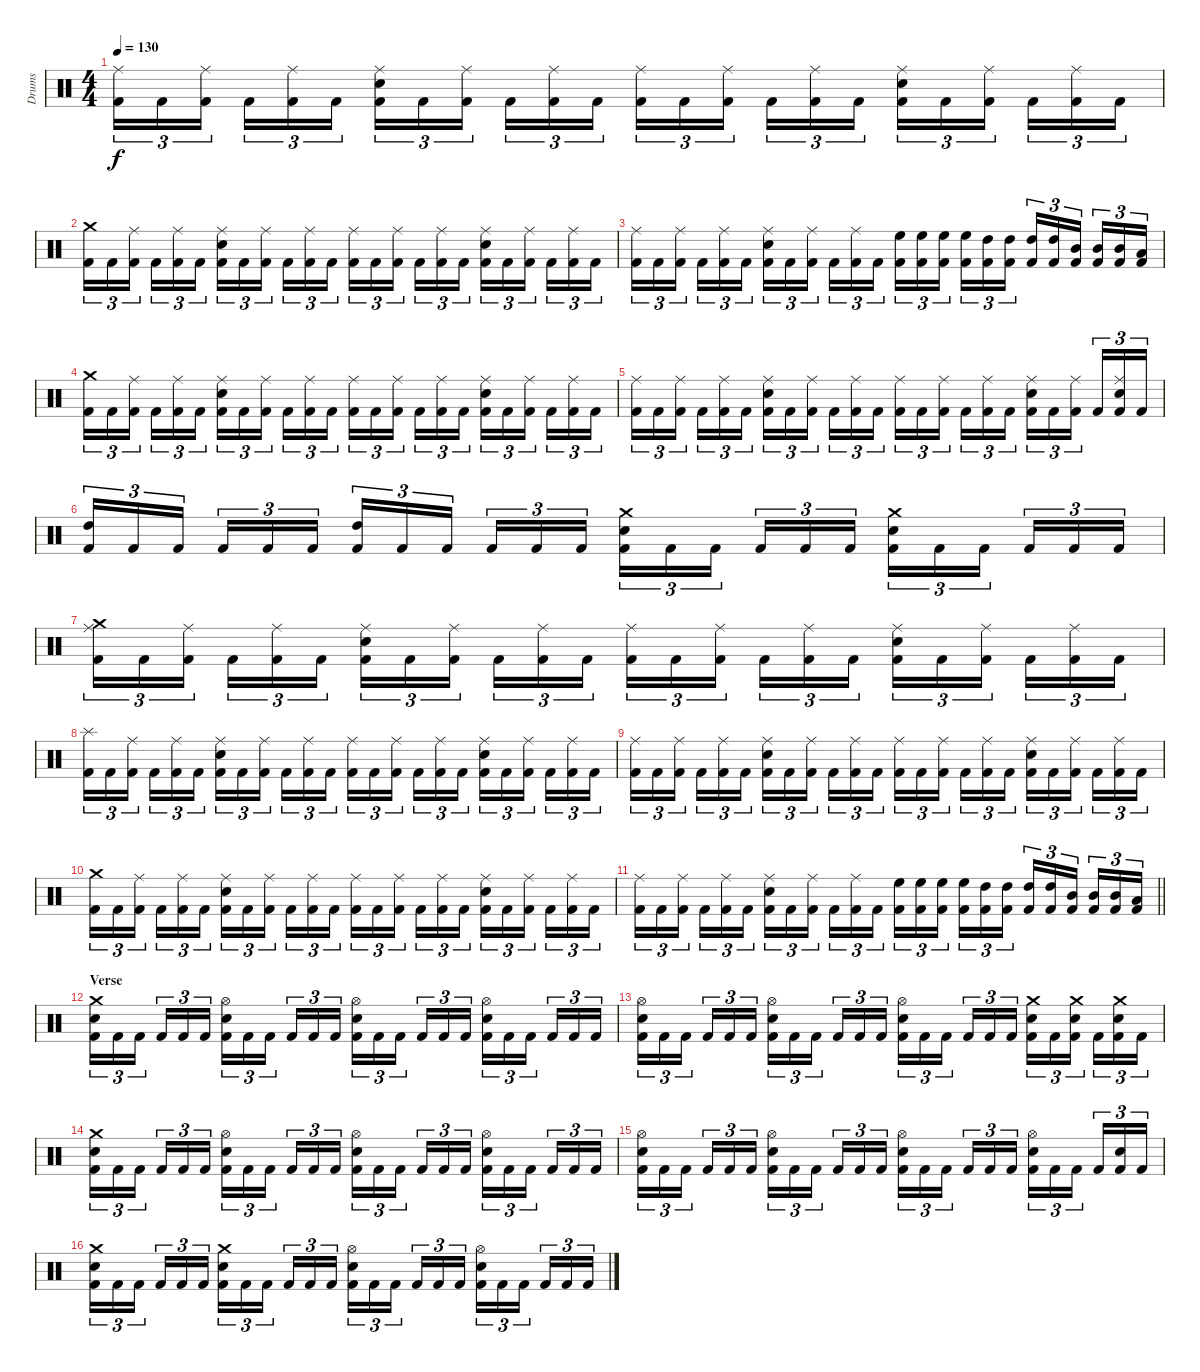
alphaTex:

\track ("Drums" "Drums") {instrument percussion}
\staff {score}
\articulation defaults
\ts (4 4)
\tempo 130
\clef neutral
\ks c
("Kick (hit) 2" "Ride (middle)").16{tu (3 2) dy f} "Kick (hit) 2".16{tu (3 2)} ("Kick (hit) 2" "Ride (middle)").16{tu (3 2) beam splitsecondary} "Kick (hit) 2".16{tu (3 2)} ("Kick (hit) 2" "Ride (middle)").16{tu (3 2)} "Kick (hit) 2".16{tu (3 2)} ("Kick (hit) 2" "Electric Snare (hit)" "Ride (middle)").16{tu (3 2)} "Kick (hit) 2".16{tu (3 2)} ("Kick (hit) 2" "Ride (middle)").16{tu (3 2) beam splitsecondary} "Kick (hit) 2".16{tu (3 2)} ("Kick (hit) 2" "Ride (middle)").16{tu (3 2)} "Kick (hit) 2".16{tu (3 2)} ("Kick (hit) 2" "Ride (middle)").16{tu (3 2)} "Kick (hit) 2".16{tu (3 2)} ("Kick (hit) 2" "Ride (middle)").16{tu (3 2) beam splitsecondary} "Kick (hit) 2".16{tu (3 2)} ("Kick (hit) 2" "Ride (middle)").16{tu (3 2)} "Kick (hit) 2".16{tu (3 2)} ("Kick (hit) 2" "Electric Snare (hit)" "Ride (middle)").16{tu (3 2)} "Kick (hit) 2".16{tu (3 2)} ("Kick (hit) 2" "Ride (middle)").16{tu (3 2) beam splitsecondary} "Kick (hit) 2".16{tu (3 2)} ("Kick (hit) 2" "Ride (middle)").16{tu (3 2)} "Kick (hit) 2".16{tu (3 2)} |
("Kick (hit) 2" "Crash medium (hit)").16{tu (3 2)} "Kick (hit) 2".16{tu (3 2)} ("Kick (hit) 2" "Ride (middle)").16{tu (3 2) beam splitsecondary} "Kick (hit) 2".16{tu (3 2)} ("Kick (hit) 2" "Ride (middle)").16{tu (3 2)} "Kick (hit) 2".16{tu (3 2)} ("Kick (hit) 2" "Electric Snare (hit)" "Ride (middle)").16{tu (3 2)} "Kick (hit) 2".16{tu (3 2)} ("Kick (hit) 2" "Ride (middle)").16{tu (3 2) beam splitsecondary} "Kick (hit) 2".16{tu (3 2)} ("Kick (hit) 2" "Ride (middle)").16{tu (3 2)} "Kick (hit) 2".16{tu (3 2)} ("Kick (hit) 2" "Ride (middle)").16{tu (3 2)} "Kick (hit) 2".16{tu (3 2)} ("Kick (hit) 2" "Ride (middle)").16{tu (3 2) beam splitsecondary} "Kick (hit) 2".16{tu (3 2)} ("Kick (hit) 2" "Ride (middle)").16{tu (3 2)} "Kick (hit) 2".16{tu (3 2)} ("Kick (hit) 2" "Electric Snare (hit)" "Ride (middle)").16{tu (3 2)} "Kick (hit) 2".16{tu (3 2)} ("Kick (hit) 2" "Ride (middle)").16{tu (3 2) beam splitsecondary} "Kick (hit) 2".16{tu (3 2)} ("Kick (hit) 2" "Ride (middle)").16{tu (3 2)} "Kick (hit) 2".16{tu (3 2)} |
("Kick (hit) 2" "Ride (middle)").16{tu (3 2)} "Kick (hit) 2".16{tu (3 2)} ("Kick (hit) 2" "Ride (middle)").16{tu (3 2) beam splitsecondary} "Kick (hit) 2".16{tu (3 2)} ("Kick (hit) 2" "Ride (middle)").16{tu (3 2)} "Kick (hit) 2".16{tu (3 2)} ("Kick (hit) 2" "Electric Snare (hit)" "Ride (middle)").16{tu (3 2)} "Kick (hit) 2".16{tu (3 2)} ("Kick (hit) 2" "Ride (middle)").16{tu (3 2) beam splitsecondary} "Kick (hit) 2".16{tu (3 2)} ("Kick (hit) 2" "Ride (middle)").16{tu (3 2)} "Kick (hit) 2".16{tu (3 2)} ("Kick (hit) 2" "High Floor Tom (hit)").16{tu (3 2)} ("Kick (hit) 2" "High Floor Tom (hit)").16{tu (3 2)} ("Kick (hit) 2" "High Floor Tom (hit)").16{tu (3 2) beam splitsecondary} ("Kick (hit) 2" "High Floor Tom (hit)").16{tu (3 2)} ("Kick (hit) 2" "High Tom (hit)").16{tu (3 2)} ("Kick (hit) 2" "High Tom (hit)").16{tu (3 2)} ("Kick (hit) 2" "High Tom (hit)").16{tu (3 2)} ("Kick (hit) 2" "High Tom (hit)").16{tu (3 2)} ("Kick (hit) 2" "Mid Tom (hit)").16{tu (3 2) beam splitsecondary} ("Kick (hit) 2" "Mid Tom (hit)").16{tu (3 2)} ("Kick (hit) 2" "Mid Tom (hit)").16{tu (3 2)} ("Kick (hit) 2" "Low Tom (hit)").16{tu (3 2)} |
("Kick (hit) 2" "Crash medium (hit)").16{tu (3 2)} "Kick (hit) 2".16{tu (3 2)} ("Kick (hit) 2" "Ride (middle)").16{tu (3 2) beam splitsecondary} "Kick (hit) 2".16{tu (3 2)} ("Kick (hit) 2" "Ride (middle)").16{tu (3 2)} "Kick (hit) 2".16{tu (3 2)} ("Kick (hit) 2" "Electric Snare (hit)" "Ride (middle)").16{tu (3 2)} "Kick (hit) 2".16{tu (3 2)} ("Kick (hit) 2" "Ride (middle)").16{tu (3 2) beam splitsecondary} "Kick (hit) 2".16{tu (3 2)} ("Kick (hit) 2" "Ride (middle)").16{tu (3 2)} "Kick (hit) 2".16{tu (3 2)} ("Kick (hit) 2" "Ride (middle)").16{tu (3 2)} "Kick (hit) 2".16{tu (3 2)} ("Kick (hit) 2" "Ride (middle)").16{tu (3 2) beam splitsecondary} "Kick (hit) 2".16{tu (3 2)} ("Kick (hit) 2" "Ride (middle)").16{tu (3 2)} "Kick (hit) 2".16{tu (3 2)} ("Kick (hit) 2" "Electric Snare (hit)" "Ride (middle)").16{tu (3 2)} "Kick (hit) 2".16{tu (3 2)} ("Kick (hit) 2" "Ride (middle)").16{tu (3 2) beam splitsecondary} "Kick (hit) 2".16{tu (3 2)} ("Kick (hit) 2" "Ride (middle)").16{tu (3 2)} "Kick (hit) 2".16{tu (3 2)} |
("Kick (hit) 2" "Ride (middle)").16{tu (3 2)} "Kick (hit) 2".16{tu (3 2)} ("Kick (hit) 2" "Ride (middle)").16{tu (3 2) beam splitsecondary} "Kick (hit) 2".16{tu (3 2)} ("Kick (hit) 2" "Ride (middle)").16{tu (3 2)} "Kick (hit) 2".16{tu (3 2)} ("Kick (hit) 2" "Electric Snare (hit)" "Ride (middle)").16{tu (3 2)} "Kick (hit) 2".16{tu (3 2)} ("Kick (hit) 2" "Ride (middle)").16{tu (3 2) beam splitsecondary} "Kick (hit) 2".16{tu (3 2)} ("Kick (hit) 2" "Ride (middle)").16{tu (3 2)} "Kick (hit) 2".16{tu (3 2)} ("Kick (hit) 2" "Ride (middle)").16{tu (3 2)} "Kick (hit) 2".16{tu (3 2)} ("Kick (hit) 2" "Ride (middle)").16{tu (3 2) beam splitsecondary} "Kick (hit) 2".16{tu (3 2)} ("Kick (hit) 2" "Ride (middle)").16{tu (3 2)} "Kick (hit) 2".16{tu (3 2)} ("Kick (hit) 2" "Electric Snare (hit)" "Ride (middle)").16{tu (3 2)} "Kick (hit) 2".16{tu (3 2)} ("Kick (hit) 2" "Ride (middle)").16{tu (3 2) beam splitsecondary} "Kick (hit) 2".16{tu (3 2)} ("Kick (hit) 2" "Electric Snare (hit)" "Ride (middle)").16{tu (3 2)} "Kick (hit) 2".16{tu (3 2)} |
("Kick (hit) 2" "High Tom (hit)").16{tu (3 2)} "Kick (hit) 2".16{tu (3 2)} "Kick (hit) 2".16{tu (3 2) beam splitsecondary} "Kick (hit) 2".16{tu (3 2)} "Kick (hit) 2".16{tu (3 2)} "Kick (hit) 2".16{tu (3 2)} ("Kick (hit) 2" "High Tom (hit)").16{tu (3 2)} "Kick (hit) 2".16{tu (3 2)} "Kick (hit) 2".16{tu (3 2) beam splitsecondary} "Kick (hit) 2".16{tu (3 2)} "Kick (hit) 2".16{tu (3 2)} "Kick (hit) 2".16{tu (3 2)} ("Kick (hit) 2" "Electric Snare (hit)" "Crash medium (hit)").16{tu (3 2)} "Kick (hit) 2".16{tu (3 2)} "Kick (hit) 2".16{tu (3 2) beam splitsecondary} "Kick (hit) 2".16{tu (3 2)} "Kick (hit) 2".16{tu (3 2)} "Kick (hit) 2".16{tu (3 2)} ("Kick (hit) 2" "Electric Snare (hit)" "Crash medium (hit)").16{tu (3 2)} "Kick (hit) 2".16{tu (3 2)} "Kick (hit) 2".16{tu (3 2) beam splitsecondary} "Kick (hit) 2".16{tu (3 2)} "Kick (hit) 2".16{tu (3 2)} "Kick (hit) 2".16{tu (3 2)} |
("Kick (hit) 2" "Crash medium (hit)" "Ride (middle)").16{tu (3 2)} "Kick (hit) 2".16{tu (3 2)} ("Kick (hit) 2" "Ride (middle)").16{tu (3 2) beam splitsecondary} "Kick (hit) 2".16{tu (3 2)} ("Kick (hit) 2" "Ride (middle)").16{tu (3 2)} "Kick (hit) 2".16{tu (3 2)} ("Kick (hit) 2" "Electric Snare (hit)" "Ride (middle)").16{tu (3 2)} "Kick (hit) 2".16{tu (3 2)} ("Kick (hit) 2" "Ride (middle)").16{tu (3 2) beam splitsecondary} "Kick (hit) 2".16{tu (3 2)} ("Kick (hit) 2" "Ride (middle)").16{tu (3 2)} "Kick (hit) 2".16{tu (3 2)} ("Kick (hit) 2" "Ride (middle)").16{tu (3 2)} "Kick (hit) 2".16{tu (3 2)} ("Kick (hit) 2" "Ride (middle)").16{tu (3 2) beam splitsecondary} "Kick (hit) 2".16{tu (3 2)} ("Kick (hit) 2" "Ride (middle)").16{tu (3 2)} "Kick (hit) 2".16{tu (3 2)} ("Kick (hit) 2" "Electric Snare (hit)" "Ride (middle)").16{tu (3 2)} "Kick (hit) 2".16{tu (3 2)} ("Kick (hit) 2" "Ride (middle)").16{tu (3 2) beam splitsecondary} "Kick (hit) 2".16{tu (3 2)} ("Kick (hit) 2" "Ride (middle)").16{tu (3 2)} "Kick (hit) 2".16{tu (3 2)} |
("Kick (hit) 2" "Splash (hit)").16{tu (3 2)} "Kick (hit) 2".16{tu (3 2)} ("Kick (hit) 2" "Ride (middle)").16{tu (3 2) beam splitsecondary} "Kick (hit) 2".16{tu (3 2)} ("Kick (hit) 2" "Ride (middle)").16{tu (3 2)} "Kick (hit) 2".16{tu (3 2)} ("Kick (hit) 2" "Electric Snare (hit)" "Ride (middle)").16{tu (3 2)} "Kick (hit) 2".16{tu (3 2)} ("Kick (hit) 2" "Ride (middle)").16{tu (3 2) beam splitsecondary} "Kick (hit) 2".16{tu (3 2)} ("Kick (hit) 2" "Ride (middle)").16{tu (3 2)} "Kick (hit) 2".16{tu (3 2)} ("Kick (hit) 2" "Ride (middle)").16{tu (3 2)} "Kick (hit) 2".16{tu (3 2)} ("Kick (hit) 2" "Ride (middle)").16{tu (3 2) beam splitsecondary} "Kick (hit) 2".16{tu (3 2)} ("Kick (hit) 2" "Ride (middle)").16{tu (3 2)} "Kick (hit) 2".16{tu (3 2)} ("Kick (hit) 2" "Electric Snare (hit)" "Ride (middle)").16{tu (3 2)} "Kick (hit) 2".16{tu (3 2)} ("Kick (hit) 2" "Ride (middle)").16{tu (3 2) beam splitsecondary} "Kick (hit) 2".16{tu (3 2)} ("Kick (hit) 2" "Ride (middle)").16{tu (3 2)} "Kick (hit) 2".16{tu (3 2)} |
("Kick (hit) 2" "Ride (middle)").16{tu (3 2)} "Kick (hit) 2".16{tu (3 2)} ("Kick (hit) 2" "Ride (middle)").16{tu (3 2) beam splitsecondary} "Kick (hit) 2".16{tu (3 2)} ("Kick (hit) 2" "Ride (middle)").16{tu (3 2)} "Kick (hit) 2".16{tu (3 2)} ("Kick (hit) 2" "Electric Snare (hit)" "Ride (middle)").16{tu (3 2)} "Kick (hit) 2".16{tu (3 2)} ("Kick (hit) 2" "Ride (middle)").16{tu (3 2) beam splitsecondary} "Kick (hit) 2".16{tu (3 2)} ("Kick (hit) 2" "Ride (middle)").16{tu (3 2)} "Kick (hit) 2".16{tu (3 2)} ("Kick (hit) 2" "Ride (middle)").16{tu (3 2)} "Kick (hit) 2".16{tu (3 2)} ("Kick (hit) 2" "Ride (middle)").16{tu (3 2) beam splitsecondary} "Kick (hit) 2".16{tu (3 2)} ("Kick (hit) 2" "Ride (middle)").16{tu (3 2)} "Kick (hit) 2".16{tu (3 2)} ("Kick (hit) 2" "Electric Snare (hit)" "Ride (middle)").16{tu (3 2)} "Kick (hit) 2".16{tu (3 2)} ("Kick (hit) 2" "Ride (middle)").16{tu (3 2) beam splitsecondary} "Kick (hit) 2".16{tu (3 2)} ("Kick (hit) 2" "Ride (middle)").16{tu (3 2)} "Kick (hit) 2".16{tu (3 2)} |
("Kick (hit) 2" "Crash medium (hit)").16{tu (3 2)} "Kick (hit) 2".16{tu (3 2)} ("Kick (hit) 2" "Ride (middle)").16{tu (3 2) beam splitsecondary} "Kick (hit) 2".16{tu (3 2)} ("Kick (hit) 2" "Ride (middle)").16{tu (3 2)} "Kick (hit) 2".16{tu (3 2)} ("Kick (hit) 2" "Electric Snare (hit)" "Ride (middle)").16{tu (3 2)} "Kick (hit) 2".16{tu (3 2)} ("Kick (hit) 2" "Ride (middle)").16{tu (3 2) beam splitsecondary} "Kick (hit) 2".16{tu (3 2)} ("Kick (hit) 2" "Ride (middle)").16{tu (3 2)} "Kick (hit) 2".16{tu (3 2)} ("Kick (hit) 2" "Ride (middle)").16{tu (3 2)} "Kick (hit) 2".16{tu (3 2)} ("Kick (hit) 2" "Ride (middle)").16{tu (3 2) beam splitsecondary} "Kick (hit) 2".16{tu (3 2)} ("Kick (hit) 2" "Ride (middle)").16{tu (3 2)} "Kick (hit) 2".16{tu (3 2)} ("Kick (hit) 2" "Electric Snare (hit)" "Ride (middle)").16{tu (3 2)} "Kick (hit) 2".16{tu (3 2)} ("Kick (hit) 2" "Ride (middle)").16{tu (3 2) beam splitsecondary} "Kick (hit) 2".16{tu (3 2)} ("Kick (hit) 2" "Ride (middle)").16{tu (3 2)} "Kick (hit) 2".16{tu (3 2)} |
\barLineRight lightlight
("Kick (hit) 2" "Ride (middle)").16{tu (3 2)} "Kick (hit) 2".16{tu (3 2)} ("Kick (hit) 2" "Ride (middle)").16{tu (3 2) beam splitsecondary} "Kick (hit) 2".16{tu (3 2)} ("Kick (hit) 2" "Ride (middle)").16{tu (3 2)} "Kick (hit) 2".16{tu (3 2)} ("Kick (hit) 2" "Electric Snare (hit)" "Ride (middle)").16{tu (3 2)} "Kick (hit) 2".16{tu (3 2)} ("Kick (hit) 2" "Ride (middle)").16{tu (3 2) beam splitsecondary} "Kick (hit) 2".16{tu (3 2)} ("Kick (hit) 2" "Ride (middle)").16{tu (3 2)} "Kick (hit) 2".16{tu (3 2)} ("Kick (hit) 2" "High Floor Tom (hit)").16{tu (3 2)} ("Kick (hit) 2" "High Floor Tom (hit)").16{tu (3 2)} ("Kick (hit) 2" "High Floor Tom (hit)").16{tu (3 2) beam splitsecondary} ("Kick (hit) 2" "High Floor Tom (hit)").16{tu (3 2)} ("Kick (hit) 2" "High Tom (hit)").16{tu (3 2)} ("Kick (hit) 2" "High Tom (hit)").16{tu (3 2)} ("Kick (hit) 2" "High Tom (hit)").16{tu (3 2)} ("Kick (hit) 2" "High Tom (hit)").16{tu (3 2)} ("Kick (hit) 2" "Mid Tom (hit)").16{tu (3 2) beam splitsecondary} ("Kick (hit) 2" "Mid Tom (hit)").16{tu (3 2)} ("Kick (hit) 2" "Mid Tom (hit)").16{tu (3 2)} ("Kick (hit) 2" "Low Tom (hit)").16{tu (3 2)} |
\section ("" "Verse")
("Kick (hit) 2" "Electric Snare (hit)" "Crash medium (hit)").16{tu (3 2)} "Kick (hit) 2".16{tu (3 2)} "Kick (hit) 2".16{tu (3 2) beam splitsecondary} "Kick (hit) 2".16{tu (3 2)} "Kick (hit) 2".16{tu (3 2)} "Kick (hit) 2".16{tu (3 2)} ("Kick (hit) 2" "Electric Snare (hit)" "Hi-Hat (open)").16{tu (3 2)} "Kick (hit) 2".16{tu (3 2)} "Kick (hit) 2".16{tu (3 2) beam splitsecondary} "Kick (hit) 2".16{tu (3 2)} "Kick (hit) 2".16{tu (3 2)} "Kick (hit) 2".16{tu (3 2)} ("Kick (hit) 2" "Electric Snare (hit)" "Hi-Hat (open)").16{tu (3 2)} "Kick (hit) 2".16{tu (3 2)} "Kick (hit) 2".16{tu (3 2) beam splitsecondary} "Kick (hit) 2".16{tu (3 2)} "Kick (hit) 2".16{tu (3 2)} "Kick (hit) 2".16{tu (3 2)} ("Kick (hit) 2" "Electric Snare (hit)" "Hi-Hat (open)").16{tu (3 2)} "Kick (hit) 2".16{tu (3 2)} "Kick (hit) 2".16{tu (3 2) beam splitsecondary} "Kick (hit) 2".16{tu (3 2)} "Kick (hit) 2".16{tu (3 2)} "Kick (hit) 2".16{tu (3 2)} |
("Kick (hit) 2" "Electric Snare (hit)" "Hi-Hat (open)").16{tu (3 2)} "Kick (hit) 2".16{tu (3 2)} "Kick (hit) 2".16{tu (3 2) beam splitsecondary} "Kick (hit) 2".16{tu (3 2)} "Kick (hit) 2".16{tu (3 2)} "Kick (hit) 2".16{tu (3 2)} ("Kick (hit) 2" "Electric Snare (hit)" "Hi-Hat (open)").16{tu (3 2)} "Kick (hit) 2".16{tu (3 2)} "Kick (hit) 2".16{tu (3 2) beam splitsecondary} "Kick (hit) 2".16{tu (3 2)} "Kick (hit) 2".16{tu (3 2)} "Kick (hit) 2".16{tu (3 2)} ("Kick (hit) 2" "Electric Snare (hit)" "Hi-Hat (open)").16{tu (3 2)} "Kick (hit) 2".16{tu (3 2)} "Kick (hit) 2".16{tu (3 2) beam splitsecondary} "Kick (hit) 2".16{tu (3 2)} "Kick (hit) 2".16{tu (3 2)} "Kick (hit) 2".16{tu (3 2)} ("Kick (hit) 2" "Electric Snare (hit)" "Crash medium (hit)").16{tu (3 2)} "Kick (hit) 2".16{tu (3 2)} ("Kick (hit) 2" "Electric Snare (hit)" "Crash medium (hit)").16{tu (3 2) beam splitsecondary} "Kick (hit) 2".16{tu (3 2)} ("Kick (hit) 2" "Electric Snare (hit)" "Crash medium (hit)").16{tu (3 2)} "Kick (hit) 2".16{tu (3 2)} |
("Kick (hit) 2" "Electric Snare (hit)" "Crash medium (hit)").16{tu (3 2)} "Kick (hit) 2".16{tu (3 2)} "Kick (hit) 2".16{tu (3 2) beam splitsecondary} "Kick (hit) 2".16{tu (3 2)} "Kick (hit) 2".16{tu (3 2)} "Kick (hit) 2".16{tu (3 2)} ("Kick (hit) 2" "Electric Snare (hit)" "Hi-Hat (open)").16{tu (3 2)} "Kick (hit) 2".16{tu (3 2)} "Kick (hit) 2".16{tu (3 2) beam splitsecondary} "Kick (hit) 2".16{tu (3 2)} "Kick (hit) 2".16{tu (3 2)} "Kick (hit) 2".16{tu (3 2)} ("Kick (hit) 2" "Electric Snare (hit)" "Hi-Hat (open)").16{tu (3 2)} "Kick (hit) 2".16{tu (3 2)} "Kick (hit) 2".16{tu (3 2) beam splitsecondary} "Kick (hit) 2".16{tu (3 2)} "Kick (hit) 2".16{tu (3 2)} "Kick (hit) 2".16{tu (3 2)} ("Kick (hit) 2" "Electric Snare (hit)" "Hi-Hat (open)").16{tu (3 2)} "Kick (hit) 2".16{tu (3 2)} "Kick (hit) 2".16{tu (3 2) beam splitsecondary} "Kick (hit) 2".16{tu (3 2)} "Kick (hit) 2".16{tu (3 2)} "Kick (hit) 2".16{tu (3 2)} |
("Kick (hit) 2" "Electric Snare (hit)" "Hi-Hat (open)").16{tu (3 2)} "Kick (hit) 2".16{tu (3 2)} "Kick (hit) 2".16{tu (3 2) beam splitsecondary} "Kick (hit) 2".16{tu (3 2)} "Kick (hit) 2".16{tu (3 2)} "Kick (hit) 2".16{tu (3 2)} ("Kick (hit) 2" "Electric Snare (hit)" "Hi-Hat (open)").16{tu (3 2)} "Kick (hit) 2".16{tu (3 2)} "Kick (hit) 2".16{tu (3 2) beam splitsecondary} "Kick (hit) 2".16{tu (3 2)} "Kick (hit) 2".16{tu (3 2)} "Kick (hit) 2".16{tu (3 2)} ("Kick (hit) 2" "Electric Snare (hit)" "Hi-Hat (open)").16{tu (3 2)} "Kick (hit) 2".16{tu (3 2)} "Kick (hit) 2".16{tu (3 2) beam splitsecondary} "Kick (hit) 2".16{tu (3 2)} "Kick (hit) 2".16{tu (3 2)} "Kick (hit) 2".16{tu (3 2)} ("Kick (hit) 2" "Electric Snare (hit)" "Hi-Hat (open)").16{tu (3 2)} "Kick (hit) 2".16{tu (3 2)} "Kick (hit) 2".16{tu (3 2) beam splitsecondary} "Kick (hit) 2".16{tu (3 2)} ("Kick (hit) 2" "Electric Snare (hit)").16{tu (3 2)} "Kick (hit) 2".16{tu (3 2)} |
("Kick (hit) 2" "Electric Snare (hit)" "Crash medium (hit)").16{tu (3 2)} "Kick (hit) 2".16{tu (3 2)} "Kick (hit) 2".16{tu (3 2) beam splitsecondary} "Kick (hit) 2".16{tu (3 2)} "Kick (hit) 2".16{tu (3 2)} "Kick (hit) 2".16{tu (3 2)} ("Kick (hit) 2" "Electric Snare (hit)" "Crash medium (hit)").16{tu (3 2)} "Kick (hit) 2".16{tu (3 2)} "Kick (hit) 2".16{tu (3 2) beam splitsecondary} "Kick (hit) 2".16{tu (3 2)} "Kick (hit) 2".16{tu (3 2)} "Kick (hit) 2".16{tu (3 2)} ("Kick (hit) 2" "Electric Snare (hit)" "Hi-Hat (open)").16{tu (3 2)} "Kick (hit) 2".16{tu (3 2)} "Kick (hit) 2".16{tu (3 2) beam splitsecondary} "Kick (hit) 2".16{tu (3 2)} "Kick (hit) 2".16{tu (3 2)} "Kick (hit) 2".16{tu (3 2)} ("Kick (hit) 2" "Electric Snare (hit)" "Hi-Hat (open)").16{tu (3 2)} "Kick (hit) 2".16{tu (3 2)} "Kick (hit) 2".16{tu (3 2) beam splitsecondary} "Kick (hit) 2".16{tu (3 2)} "Kick (hit) 2".16{tu (3 2)} "Kick (hit) 2".16{tu (3 2)}
